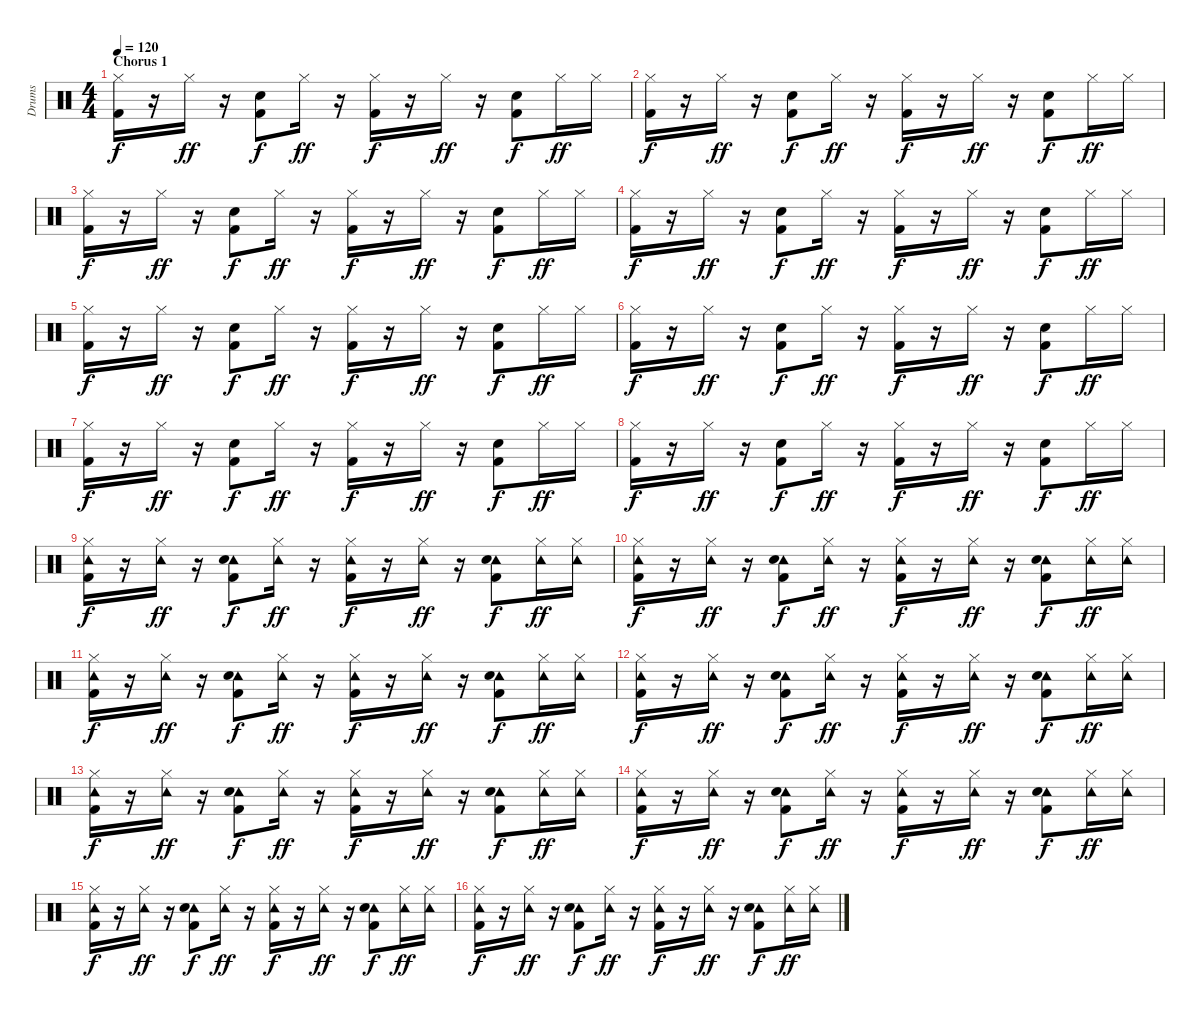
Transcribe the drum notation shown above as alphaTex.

\track ("Drums" "Drums") {instrument percussion}
\staff {score}
\articulation defaults
\ts (4 4)
\section ("" "Chorus 1")
\tempo 120
\clef neutral
\ks c
("Hi-Hat (closed)" "Kick (hit) 2").16{dy f} r.16 "Hi-Hat (closed)".16{dy ff} r.16 ("Electric Snare (hit)" "Kick (hit) 2").8{dy f} "Hi-Hat (closed)".16{dy ff} r.16 ("Hi-Hat (closed)" "Kick (hit) 2").16{dy f} r.16 "Hi-Hat (closed)".16{dy ff} r.16 ("Electric Snare (hit)" "Kick (hit) 2").8{dy f} "Hi-Hat (closed)".16{dy ff} "Hi-Hat (closed)".16 |
("Hi-Hat (closed)" "Kick (hit) 2").16{dy f} r.16 "Hi-Hat (closed)".16{dy ff} r.16 ("Electric Snare (hit)" "Kick (hit) 2").8{dy f} "Hi-Hat (closed)".16{dy ff} r.16 ("Hi-Hat (closed)" "Kick (hit) 2").16{dy f} r.16 "Hi-Hat (closed)".16{dy ff} r.16 ("Electric Snare (hit)" "Kick (hit) 2").8{dy f} "Hi-Hat (closed)".16{dy ff} "Hi-Hat (closed)".16 |
("Hi-Hat (closed)" "Kick (hit) 2").16{dy f} r.16 "Hi-Hat (closed)".16{dy ff} r.16 ("Electric Snare (hit)" "Kick (hit) 2").8{dy f} "Hi-Hat (closed)".16{dy ff} r.16 ("Hi-Hat (closed)" "Kick (hit) 2").16{dy f} r.16 "Hi-Hat (closed)".16{dy ff} r.16 ("Electric Snare (hit)" "Kick (hit) 2").8{dy f} "Hi-Hat (closed)".16{dy ff} "Hi-Hat (closed)".16 |
("Hi-Hat (closed)" "Kick (hit) 2").16{dy f} r.16 "Hi-Hat (closed)".16{dy ff} r.16 ("Electric Snare (hit)" "Kick (hit) 2").8{dy f} "Hi-Hat (closed)".16{dy ff} r.16 ("Hi-Hat (closed)" "Kick (hit) 2").16{dy f} r.16 "Hi-Hat (closed)".16{dy ff} r.16 ("Electric Snare (hit)" "Kick (hit) 2").8{dy f} "Hi-Hat (closed)".16{dy ff} "Hi-Hat (closed)".16 |
("Hi-Hat (closed)" "Kick (hit) 2").16{dy f} r.16 "Hi-Hat (closed)".16{dy ff} r.16 ("Electric Snare (hit)" "Kick (hit) 2").8{dy f} "Hi-Hat (closed)".16{dy ff} r.16 ("Hi-Hat (closed)" "Kick (hit) 2").16{dy f} r.16 "Hi-Hat (closed)".16{dy ff} r.16 ("Electric Snare (hit)" "Kick (hit) 2").8{dy f} "Hi-Hat (closed)".16{dy ff} "Hi-Hat (closed)".16 |
("Hi-Hat (closed)" "Kick (hit) 2").16{dy f} r.16 "Hi-Hat (closed)".16{dy ff} r.16 ("Electric Snare (hit)" "Kick (hit) 2").8{dy f} "Hi-Hat (closed)".16{dy ff} r.16 ("Hi-Hat (closed)" "Kick (hit) 2").16{dy f} r.16 "Hi-Hat (closed)".16{dy ff} r.16 ("Electric Snare (hit)" "Kick (hit) 2").8{dy f} "Hi-Hat (closed)".16{dy ff} "Hi-Hat (closed)".16 |
("Hi-Hat (closed)" "Kick (hit) 2").16{dy f} r.16 "Hi-Hat (closed)".16{dy ff} r.16 ("Electric Snare (hit)" "Kick (hit) 2").8{dy f} "Hi-Hat (closed)".16{dy ff} r.16 ("Hi-Hat (closed)" "Kick (hit) 2").16{dy f} r.16 "Hi-Hat (closed)".16{dy ff} r.16 ("Electric Snare (hit)" "Kick (hit) 2").8{dy f} "Hi-Hat (closed)".16{dy ff} "Hi-Hat (closed)".16 |
("Hi-Hat (closed)" "Kick (hit) 2").16{dy f} r.16 "Hi-Hat (closed)".16{dy ff} r.16 ("Electric Snare (hit)" "Kick (hit) 2").8{dy f} "Hi-Hat (closed)".16{dy ff} r.16 ("Hi-Hat (closed)" "Kick (hit) 2").16{dy f} r.16 "Hi-Hat (closed)".16{dy ff} r.16 ("Electric Snare (hit)" "Kick (hit) 2").8{dy f} "Hi-Hat (closed)".16{dy ff} "Hi-Hat (closed)".16 |
("Hi-Hat (closed)" "Tambourine (hit)" "Kick (hit) 2").16{dy f} r.16 ("Hi-Hat (closed)" "Tambourine (hit)").16{dy ff} r.16 ("Tambourine (hit)" "Electric Snare (hit)" "Kick (hit) 2").8{dy f} ("Hi-Hat (closed)" "Tambourine (hit)").16{dy ff} r.16 ("Hi-Hat (closed)" "Tambourine (hit)" "Kick (hit) 2").16{dy f} r.16 ("Hi-Hat (closed)" "Tambourine (hit)").16{dy ff} r.16 ("Tambourine (hit)" "Electric Snare (hit)" "Kick (hit) 2").8{dy f} ("Hi-Hat (closed)" "Tambourine (hit)").16{dy ff} ("Hi-Hat (closed)" "Tambourine (hit)").16 |
("Hi-Hat (closed)" "Tambourine (hit)" "Kick (hit) 2").16{dy f} r.16 ("Hi-Hat (closed)" "Tambourine (hit)").16{dy ff} r.16 ("Tambourine (hit)" "Electric Snare (hit)" "Kick (hit) 2").8{dy f} ("Hi-Hat (closed)" "Tambourine (hit)").16{dy ff} r.16 ("Hi-Hat (closed)" "Tambourine (hit)" "Kick (hit) 2").16{dy f} r.16 ("Hi-Hat (closed)" "Tambourine (hit)").16{dy ff} r.16 ("Tambourine (hit)" "Electric Snare (hit)" "Kick (hit) 2").8{dy f} ("Hi-Hat (closed)" "Tambourine (hit)").16{dy ff} ("Hi-Hat (closed)" "Tambourine (hit)").16 |
("Hi-Hat (closed)" "Tambourine (hit)" "Kick (hit) 2").16{dy f} r.16 ("Hi-Hat (closed)" "Tambourine (hit)").16{dy ff} r.16 ("Tambourine (hit)" "Electric Snare (hit)" "Kick (hit) 2").8{dy f} ("Hi-Hat (closed)" "Tambourine (hit)").16{dy ff} r.16 ("Hi-Hat (closed)" "Tambourine (hit)" "Kick (hit) 2").16{dy f} r.16 ("Hi-Hat (closed)" "Tambourine (hit)").16{dy ff} r.16 ("Tambourine (hit)" "Electric Snare (hit)" "Kick (hit) 2").8{dy f} ("Hi-Hat (closed)" "Tambourine (hit)").16{dy ff} ("Hi-Hat (closed)" "Tambourine (hit)").16 |
("Hi-Hat (closed)" "Tambourine (hit)" "Kick (hit) 2").16{dy f} r.16 ("Hi-Hat (closed)" "Tambourine (hit)").16{dy ff} r.16 ("Tambourine (hit)" "Electric Snare (hit)" "Kick (hit) 2").8{dy f} ("Hi-Hat (closed)" "Tambourine (hit)").16{dy ff} r.16 ("Hi-Hat (closed)" "Tambourine (hit)" "Kick (hit) 2").16{dy f} r.16 ("Hi-Hat (closed)" "Tambourine (hit)").16{dy ff} r.16 ("Tambourine (hit)" "Electric Snare (hit)" "Kick (hit) 2").8{dy f} ("Hi-Hat (closed)" "Tambourine (hit)").16{dy ff} ("Hi-Hat (closed)" "Tambourine (hit)").16 |
("Hi-Hat (closed)" "Tambourine (hit)" "Kick (hit) 2").16{dy f} r.16 ("Hi-Hat (closed)" "Tambourine (hit)").16{dy ff} r.16 ("Tambourine (hit)" "Electric Snare (hit)" "Kick (hit) 2").8{dy f} ("Hi-Hat (closed)" "Tambourine (hit)").16{dy ff} r.16 ("Hi-Hat (closed)" "Tambourine (hit)" "Kick (hit) 2").16{dy f} r.16 ("Hi-Hat (closed)" "Tambourine (hit)").16{dy ff} r.16 ("Tambourine (hit)" "Electric Snare (hit)" "Kick (hit) 2").8{dy f} ("Hi-Hat (closed)" "Tambourine (hit)").16{dy ff} ("Hi-Hat (closed)" "Tambourine (hit)").16 |
("Hi-Hat (closed)" "Tambourine (hit)" "Kick (hit) 2").16{dy f} r.16 ("Hi-Hat (closed)" "Tambourine (hit)").16{dy ff} r.16 ("Tambourine (hit)" "Electric Snare (hit)" "Kick (hit) 2").8{dy f} ("Hi-Hat (closed)" "Tambourine (hit)").16{dy ff} r.16 ("Hi-Hat (closed)" "Tambourine (hit)" "Kick (hit) 2").16{dy f} r.16 ("Hi-Hat (closed)" "Tambourine (hit)").16{dy ff} r.16 ("Tambourine (hit)" "Electric Snare (hit)" "Kick (hit) 2").8{dy f} ("Hi-Hat (closed)" "Tambourine (hit)").16{dy ff} ("Hi-Hat (closed)" "Tambourine (hit)").16 |
("Hi-Hat (closed)" "Tambourine (hit)" "Kick (hit) 2").16{dy f} r.16 ("Hi-Hat (closed)" "Tambourine (hit)").16{dy ff} r.16 ("Tambourine (hit)" "Electric Snare (hit)" "Kick (hit) 2").8{dy f} ("Hi-Hat (closed)" "Tambourine (hit)").16{dy ff} r.16 ("Hi-Hat (closed)" "Tambourine (hit)" "Kick (hit) 2").16{dy f} r.16 ("Hi-Hat (closed)" "Tambourine (hit)").16{dy ff} r.16 ("Tambourine (hit)" "Electric Snare (hit)" "Kick (hit) 2").8{dy f} ("Hi-Hat (closed)" "Tambourine (hit)").16{dy ff} ("Hi-Hat (closed)" "Tambourine (hit)").16 |
("Hi-Hat (closed)" "Tambourine (hit)" "Kick (hit) 2").16{dy f} r.16 ("Hi-Hat (closed)" "Tambourine (hit)").16{dy ff} r.16 ("Tambourine (hit)" "Electric Snare (hit)" "Kick (hit) 2").8{dy f} ("Hi-Hat (closed)" "Tambourine (hit)").16{dy ff} r.16 ("Hi-Hat (closed)" "Tambourine (hit)" "Kick (hit) 2").16{dy f} r.16 ("Hi-Hat (closed)" "Tambourine (hit)").16{dy ff} r.16 ("Tambourine (hit)" "Electric Snare (hit)" "Kick (hit) 2").8{dy f} ("Hi-Hat (closed)" "Tambourine (hit)").16{dy ff} ("Hi-Hat (closed)" "Tambourine (hit)").16
